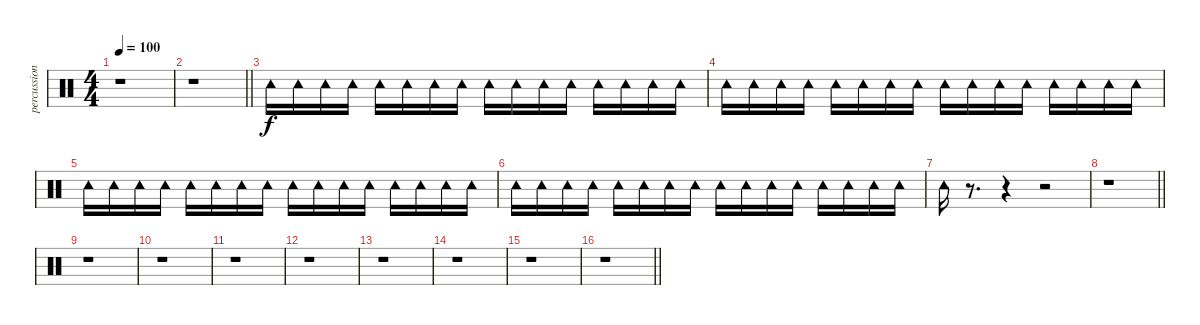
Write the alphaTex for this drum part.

\track ("percussion" "percussion") {instrument percussion}
\staff {score}
\articulation defaults
\ts (4 4)
\tempo 100
\clef neutral
\ks c
r.1{dy f} |
\barLineRight lightlight
r.1 |
"Tambourine (hit)".16 "Tambourine (hit)".16 "Tambourine (hit)".16 "Tambourine (hit)".16 "Tambourine (hit)".16 "Tambourine (hit)".16 "Tambourine (hit)".16 "Tambourine (hit)".16 "Tambourine (hit)".16 "Tambourine (hit)".16 "Tambourine (hit)".16 "Tambourine (hit)".16 "Tambourine (hit)".16 "Tambourine (hit)".16 "Tambourine (hit)".16 "Tambourine (hit)".16 |
"Tambourine (hit)".16 "Tambourine (hit)".16 "Tambourine (hit)".16 "Tambourine (hit)".16 "Tambourine (hit)".16 "Tambourine (hit)".16 "Tambourine (hit)".16 "Tambourine (hit)".16 "Tambourine (hit)".16 "Tambourine (hit)".16 "Tambourine (hit)".16 "Tambourine (hit)".16 "Tambourine (hit)".16 "Tambourine (hit)".16 "Tambourine (hit)".16 "Tambourine (hit)".16 |
"Tambourine (hit)".16 "Tambourine (hit)".16 "Tambourine (hit)".16 "Tambourine (hit)".16 "Tambourine (hit)".16 "Tambourine (hit)".16 "Tambourine (hit)".16 "Tambourine (hit)".16 "Tambourine (hit)".16 "Tambourine (hit)".16 "Tambourine (hit)".16 "Tambourine (hit)".16 "Tambourine (hit)".16 "Tambourine (hit)".16 "Tambourine (hit)".16 "Tambourine (hit)".16 |
"Tambourine (hit)".16 "Tambourine (hit)".16 "Tambourine (hit)".16 "Tambourine (hit)".16 "Tambourine (hit)".16 "Tambourine (hit)".16 "Tambourine (hit)".16 "Tambourine (hit)".16 "Tambourine (hit)".16 "Tambourine (hit)".16 "Tambourine (hit)".16 "Tambourine (hit)".16 "Tambourine (hit)".16 "Tambourine (hit)".16 "Tambourine (hit)".16 "Tambourine (hit)".16 |
"Tambourine (hit)".16 r.8{d} r.4 r.2 |
\barLineRight lightlight
r.1 |
r.1 |
r.1 |
r.1 |
r.1 |
r.1 |
r.1 |
r.1 |
\barLineRight lightlight
r.1
